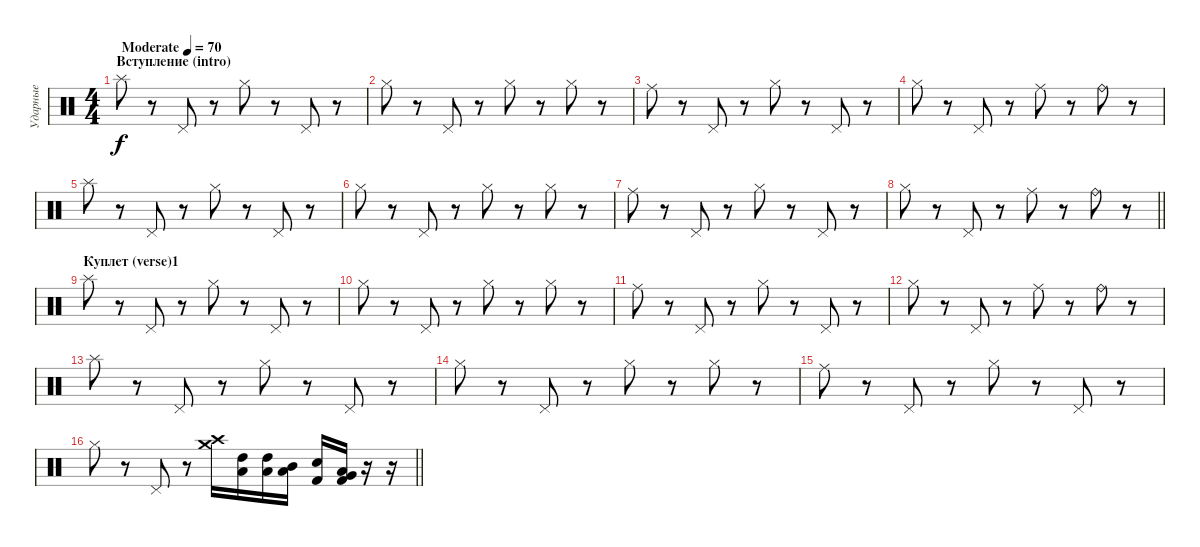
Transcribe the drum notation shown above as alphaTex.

\track ("Ударные" "Ударные") {instrument percussion}
\staff {score}
\articulation defaults
\ts (4 4)
\section ("" "Вступление (intro)")
\tempo (70 "Moderate")
\clef neutral
\ks c "Splash (hit)".8{dy f}
r.8 "Pedal Hi-Hat (hit)".8 r.8 "Hi-Hat (closed)".8 r.8 "Pedal Hi-Hat (hit)".8 r.8 |
"Hi-Hat (closed)".8 r.8 "Pedal Hi-Hat (hit)".8 r.8 "Hi-Hat (closed)".8 r.8 "Hi-Hat (closed)".8 r.8 |
"Ride (middle)".8 r.8 "Pedal Hi-Hat (hit)".8 r.8 "Hi-Hat (closed)".8 r.8 "Pedal Hi-Hat (hit)".8 r.8 |
"Hi-Hat (closed)".8 r.8 "Pedal Hi-Hat (hit)".8 r.8 "Ride (middle)".8 r.8 "Ride (bell)".8 r.8 |
"Splash (hit)".8 r.8 "Pedal Hi-Hat (hit)".8 r.8 "Hi-Hat (closed)".8 r.8 "Pedal Hi-Hat (hit)".8 r.8 |
"Hi-Hat (closed)".8 r.8 "Pedal Hi-Hat (hit)".8 r.8 "Hi-Hat (closed)".8 r.8 "Hi-Hat (closed)".8 r.8 |
"Ride (middle)".8 r.8 "Pedal Hi-Hat (hit)".8 r.8 "Hi-Hat (closed)".8 r.8 "Pedal Hi-Hat (hit)".8 r.8 |
\barLineRight lightlight "Hi-Hat (closed)".8
r.8 "Pedal Hi-Hat (hit)".8 r.8 "Ride (middle)".8 r.8 "Ride (bell)".8 r.8 |
\section ("" "Куплет (verse)1")
"Splash (hit)".8 r.8 "Pedal Hi-Hat (hit)".8 r.8 "Hi-Hat (closed)".8 r.8 "Pedal Hi-Hat (hit)".8 r.8 |
"Hi-Hat (closed)".8 r.8 "Pedal Hi-Hat (hit)".8 r.8 "Hi-Hat (closed)".8 r.8 "Hi-Hat (closed)".8 r.8 |
"Ride (middle)".8 r.8 "Pedal Hi-Hat (hit)".8 r.8 "Hi-Hat (closed)".8 r.8 "Pedal Hi-Hat (hit)".8 r.8 |
"Hi-Hat (closed)".8 r.8 "Pedal Hi-Hat (hit)".8 r.8 "Ride (middle)".8 r.8 "Ride (bell)".8 r.8 |
"Splash (hit)".8 r.8 "Pedal Hi-Hat (hit)".8 r.8 "Hi-Hat (closed)".8 r.8 "Pedal Hi-Hat (hit)".8 r.8 |
"Hi-Hat (closed)".8 r.8 "Pedal Hi-Hat (hit)".8 r.8 "Hi-Hat (closed)".8 r.8 "Hi-Hat (closed)".8 r.8 |
"Ride (middle)".8 r.8 "Pedal Hi-Hat (hit)".8 r.8 "Hi-Hat (closed)".8 r.8 "Pedal Hi-Hat (hit)".8 r.8 |
\barLineRight lightlight "Hi-Hat (closed)".8
r.8 "Pedal Hi-Hat (hit)".8 r.8 ("Crash high (hit)" "Crash medium (hit)").16 ("High Tom (hit)" "Low Floor Tom (hit)").16 ("High Tom (hit)" "Low Floor Tom (hit)").16 ("Mid Tom (hit)" "Low Floor Tom (hit)").16 ("Snare (hit) 2" "Kick (hit) 2").16 ("Low Tom (hit)" "Very Low Tom (hit)" "Kick (hit) 2").16 r.16 r.16
